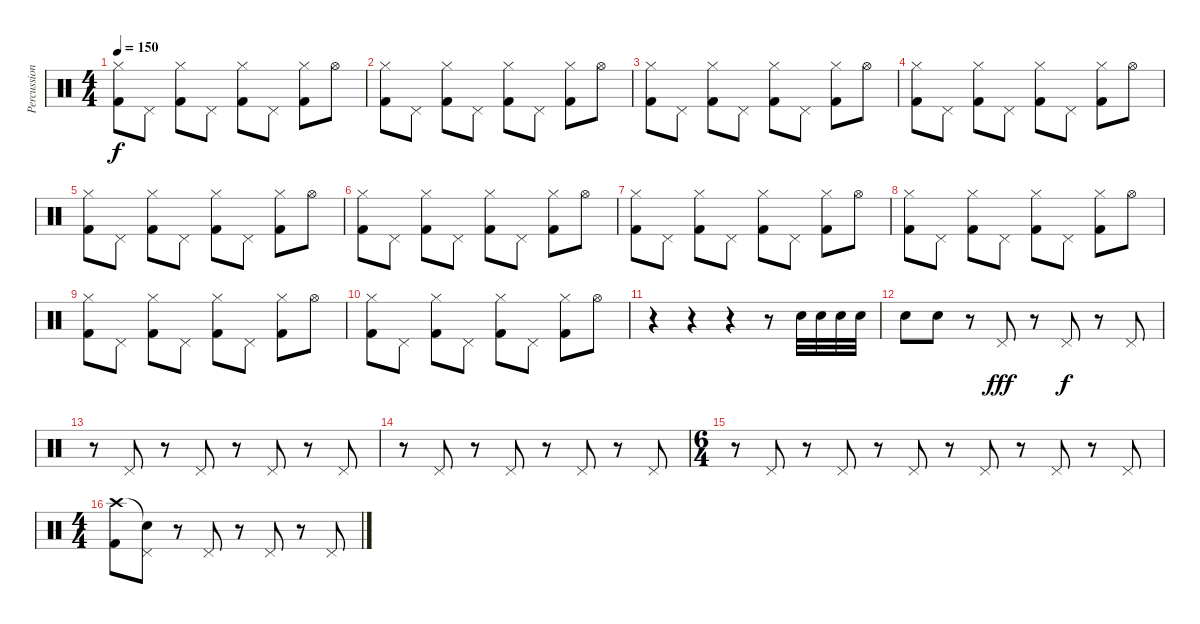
\track ("Percussions" "Percussion") {instrument percussion}
\staff {score}
\articulation defaults
\ts (4 4)
\tempo 150
\clef neutral
\ks c
("Hi-Hat (closed)" "Kick (hit) 2").8{dy f} "Pedal Hi-Hat (hit)".8 ("Hi-Hat (closed)" "Kick (hit) 2").8 "Pedal Hi-Hat (hit)".8 ("Hi-Hat (closed)" "Kick (hit) 2").8 "Pedal Hi-Hat (hit)".8 ("Hi-Hat (closed)" "Kick (hit) 2").8 "Hi-Hat (open)".8 |
("Hi-Hat (closed)" "Kick (hit) 2").8 "Pedal Hi-Hat (hit)".8 ("Hi-Hat (closed)" "Kick (hit) 2").8 "Pedal Hi-Hat (hit)".8 ("Hi-Hat (closed)" "Kick (hit) 2").8 "Pedal Hi-Hat (hit)".8 ("Hi-Hat (closed)" "Kick (hit) 2").8 "Hi-Hat (open)".8 |
("Hi-Hat (closed)" "Kick (hit) 2").8 "Pedal Hi-Hat (hit)".8 ("Hi-Hat (closed)" "Kick (hit) 2").8 "Pedal Hi-Hat (hit)".8 ("Hi-Hat (closed)" "Kick (hit) 2").8 "Pedal Hi-Hat (hit)".8 ("Hi-Hat (closed)" "Kick (hit) 2").8 "Hi-Hat (open)".8 |
("Hi-Hat (closed)" "Kick (hit) 2").8 "Pedal Hi-Hat (hit)".8 ("Hi-Hat (closed)" "Kick (hit) 2").8 "Pedal Hi-Hat (hit)".8 ("Hi-Hat (closed)" "Kick (hit) 2").8 "Pedal Hi-Hat (hit)".8 ("Hi-Hat (closed)" "Kick (hit) 2").8 "Hi-Hat (open)".8 |
("Hi-Hat (closed)" "Kick (hit) 2").8 "Pedal Hi-Hat (hit)".8 ("Hi-Hat (closed)" "Kick (hit) 2").8 "Pedal Hi-Hat (hit)".8 ("Hi-Hat (closed)" "Kick (hit) 2").8 "Pedal Hi-Hat (hit)".8 ("Hi-Hat (closed)" "Kick (hit) 2").8 "Hi-Hat (open)".8 |
("Hi-Hat (closed)" "Kick (hit) 2").8 "Pedal Hi-Hat (hit)".8 ("Hi-Hat (closed)" "Kick (hit) 2").8 "Pedal Hi-Hat (hit)".8 ("Hi-Hat (closed)" "Kick (hit) 2").8 "Pedal Hi-Hat (hit)".8 ("Hi-Hat (closed)" "Kick (hit) 2").8 "Hi-Hat (open)".8 |
("Hi-Hat (closed)" "Kick (hit) 2").8 "Pedal Hi-Hat (hit)".8 ("Hi-Hat (closed)" "Kick (hit) 2").8 "Pedal Hi-Hat (hit)".8 ("Hi-Hat (closed)" "Kick (hit) 2").8 "Pedal Hi-Hat (hit)".8 ("Hi-Hat (closed)" "Kick (hit) 2").8 "Hi-Hat (open)".8 |
("Hi-Hat (closed)" "Kick (hit) 2").8 "Pedal Hi-Hat (hit)".8 ("Hi-Hat (closed)" "Kick (hit) 2").8 "Pedal Hi-Hat (hit)".8 ("Hi-Hat (closed)" "Kick (hit) 2").8 "Pedal Hi-Hat (hit)".8 ("Hi-Hat (closed)" "Kick (hit) 2").8 "Hi-Hat (open)".8 |
("Hi-Hat (closed)" "Kick (hit) 2").8 "Pedal Hi-Hat (hit)".8 ("Hi-Hat (closed)" "Kick (hit) 2").8 "Pedal Hi-Hat (hit)".8 ("Hi-Hat (closed)" "Kick (hit) 2").8 "Pedal Hi-Hat (hit)".8 ("Hi-Hat (closed)" "Kick (hit) 2").8 "Hi-Hat (open)".8 |
("Hi-Hat (closed)" "Kick (hit) 2").8 "Pedal Hi-Hat (hit)".8 ("Hi-Hat (closed)" "Kick (hit) 2").8 "Pedal Hi-Hat (hit)".8 ("Hi-Hat (closed)" "Kick (hit) 2").8 "Pedal Hi-Hat (hit)".8 ("Hi-Hat (closed)" "Kick (hit) 2").8 "Hi-Hat (open)".8 |
r.4 r.4 r.4 r.8 "Electric Snare (hit)".32 "Electric Snare (hit)".32 "Electric Snare (hit)".32 "Electric Snare (hit)".32 |
"Electric Snare (hit)".8 "Electric Snare (hit)".8 r.8 "Pedal Hi-Hat (hit)".8{dy fff} r.8 "Pedal Hi-Hat (hit)".8{dy f} r.8 "Pedal Hi-Hat (hit)".8 |
r.8 "Pedal Hi-Hat (hit)".8 r.8 "Pedal Hi-Hat (hit)".8 r.8 "Pedal Hi-Hat (hit)".8 r.8 "Pedal Hi-Hat (hit)".8 |
r.8 "Pedal Hi-Hat (hit)".8 r.8 "Pedal Hi-Hat (hit)".8 r.8 "Pedal Hi-Hat (hit)".8 r.8 "Pedal Hi-Hat (hit)".8 |
\ts (6 4)
r.8 "Pedal Hi-Hat (hit)".8 r.8 "Pedal Hi-Hat (hit)".8 r.8 "Pedal Hi-Hat (hit)".8 r.8 "Pedal Hi-Hat (hit)".8 r.8 "Pedal Hi-Hat (hit)".8 r.8 "Pedal Hi-Hat (hit)".8 |
\ts (4 4)
("Kick (hit) 2" "Crash high (hit)").8 ("Pedal Hi-Hat (hit)" "Snare (hit)"{t}).8 r.8 "Pedal Hi-Hat (hit)".8 r.8 "Pedal Hi-Hat (hit)".8 r.8 "Pedal Hi-Hat (hit)".8
